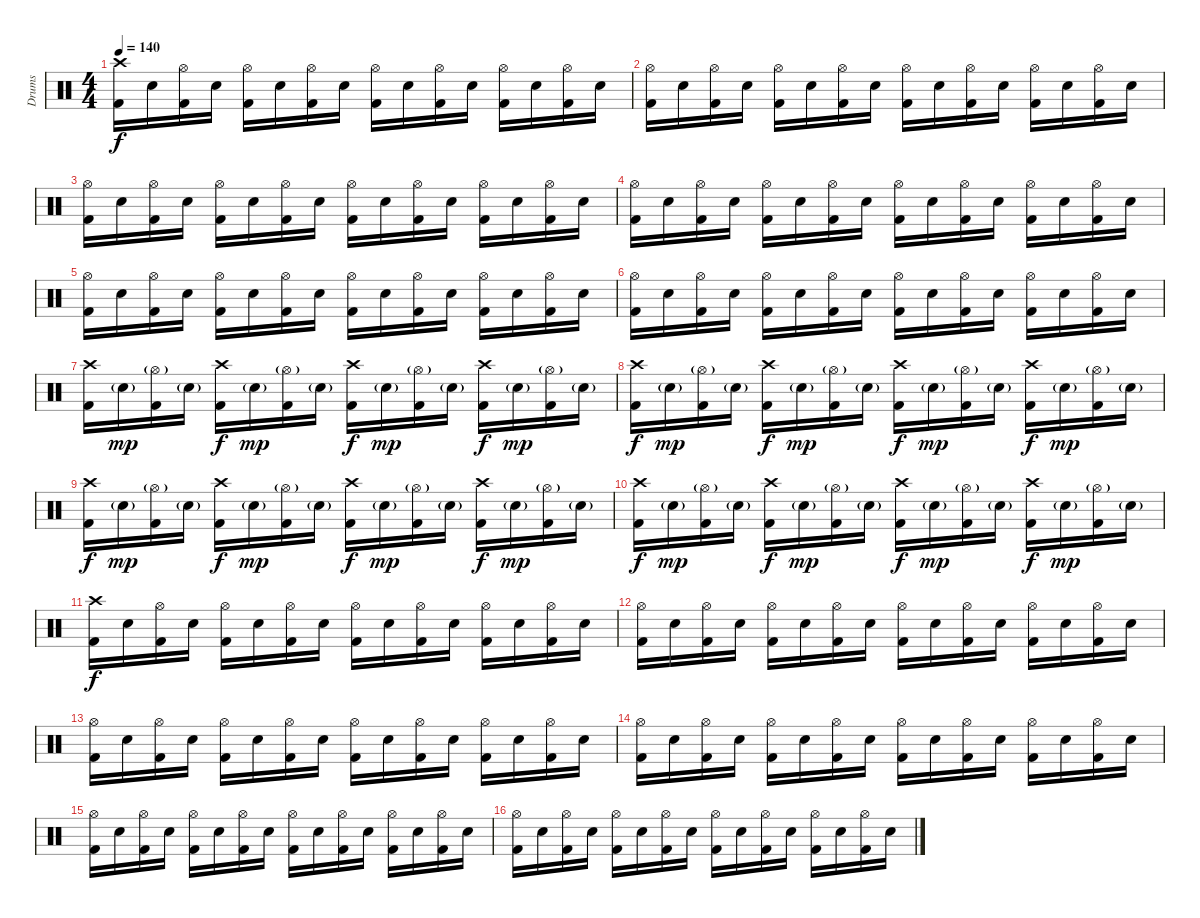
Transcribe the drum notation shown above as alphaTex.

\track ("Drums" "Drums") {instrument percussion}
\staff {score}
\articulation defaults
\ts (4 4)
\tempo 140
\clef neutral
\ks c
("Kick (hit) 2" "Crash high (hit)").16{dy f} "Electric Snare (hit)".16 ("Kick (hit) 2" "Hi-Hat (open)").16 "Electric Snare (hit)".16 ("Kick (hit) 2" "Hi-Hat (open)").16 "Electric Snare (hit)".16 ("Kick (hit) 2" "Hi-Hat (open)").16 "Electric Snare (hit)".16 ("Kick (hit) 2" "Hi-Hat (open)").16 "Electric Snare (hit)".16 ("Kick (hit) 2" "Hi-Hat (open)").16 "Electric Snare (hit)".16 ("Kick (hit) 2" "Hi-Hat (open)").16 "Electric Snare (hit)".16 ("Kick (hit) 2" "Hi-Hat (open)").16 "Electric Snare (hit)".16 |
("Kick (hit) 2" "Hi-Hat (open)").16 "Electric Snare (hit)".16 ("Kick (hit) 2" "Hi-Hat (open)").16 "Electric Snare (hit)".16 ("Kick (hit) 2" "Hi-Hat (open)").16 "Electric Snare (hit)".16 ("Kick (hit) 2" "Hi-Hat (open)").16 "Electric Snare (hit)".16 ("Kick (hit) 2" "Hi-Hat (open)").16 "Electric Snare (hit)".16 ("Kick (hit) 2" "Hi-Hat (open)").16 "Electric Snare (hit)".16 ("Kick (hit) 2" "Hi-Hat (open)").16 "Electric Snare (hit)".16 ("Kick (hit) 2" "Hi-Hat (open)").16 "Electric Snare (hit)".16 |
("Kick (hit) 2" "Hi-Hat (open)").16 "Electric Snare (hit)".16 ("Kick (hit) 2" "Hi-Hat (open)").16 "Electric Snare (hit)".16 ("Kick (hit) 2" "Hi-Hat (open)").16 "Electric Snare (hit)".16 ("Kick (hit) 2" "Hi-Hat (open)").16 "Electric Snare (hit)".16 ("Kick (hit) 2" "Hi-Hat (open)").16 "Electric Snare (hit)".16 ("Kick (hit) 2" "Hi-Hat (open)").16 "Electric Snare (hit)".16 ("Kick (hit) 2" "Hi-Hat (open)").16 "Electric Snare (hit)".16 ("Kick (hit) 2" "Hi-Hat (open)").16 "Electric Snare (hit)".16 |
("Kick (hit) 2" "Hi-Hat (open)").16 "Electric Snare (hit)".16 ("Kick (hit) 2" "Hi-Hat (open)").16 "Electric Snare (hit)".16 ("Kick (hit) 2" "Hi-Hat (open)").16 "Electric Snare (hit)".16 ("Kick (hit) 2" "Hi-Hat (open)").16 "Electric Snare (hit)".16 ("Kick (hit) 2" "Hi-Hat (open)").16 "Electric Snare (hit)".16 ("Kick (hit) 2" "Hi-Hat (open)").16 "Electric Snare (hit)".16 ("Kick (hit) 2" "Hi-Hat (open)").16 "Electric Snare (hit)".16 ("Kick (hit) 2" "Hi-Hat (open)").16 "Electric Snare (hit)".16 |
("Kick (hit) 2" "Hi-Hat (open)").16 "Electric Snare (hit)".16 ("Kick (hit) 2" "Hi-Hat (open)").16 "Electric Snare (hit)".16 ("Kick (hit) 2" "Hi-Hat (open)").16 "Electric Snare (hit)".16 ("Kick (hit) 2" "Hi-Hat (open)").16 "Electric Snare (hit)".16 ("Kick (hit) 2" "Hi-Hat (open)").16 "Electric Snare (hit)".16 ("Kick (hit) 2" "Hi-Hat (open)").16 "Electric Snare (hit)".16 ("Kick (hit) 2" "Hi-Hat (open)").16 "Electric Snare (hit)".16 ("Kick (hit) 2" "Hi-Hat (open)").16 "Electric Snare (hit)".16 |
("Kick (hit) 2" "Hi-Hat (open)").16 "Electric Snare (hit)".16 ("Kick (hit) 2" "Hi-Hat (open)").16 "Electric Snare (hit)".16 ("Kick (hit) 2" "Hi-Hat (open)").16 "Electric Snare (hit)".16 ("Kick (hit) 2" "Hi-Hat (open)").16 "Electric Snare (hit)".16 ("Kick (hit) 2" "Hi-Hat (open)").16 "Electric Snare (hit)".16 ("Kick (hit) 2" "Hi-Hat (open)").16 "Electric Snare (hit)".16 ("Kick (hit) 2" "Hi-Hat (open)").16 "Electric Snare (hit)".16 ("Kick (hit) 2" "Hi-Hat (open)").16 "Electric Snare (hit)".16 |
("Kick (hit) 2" "Crash high (hit)").16 "Electric Snare (hit)"{g}.16{dy mp} ("Kick (hit) 2" "Hi-Hat (open)"{g}).16 "Electric Snare (hit)"{g}.16 ("Kick (hit) 2" "Crash high (hit)").16{dy f} "Electric Snare (hit)"{g}.16{dy mp} ("Kick (hit) 2" "Hi-Hat (open)"{g}).16 "Electric Snare (hit)"{g}.16 ("Kick (hit) 2" "Crash high (hit)").16{dy f} "Electric Snare (hit)"{g}.16{dy mp} ("Kick (hit) 2" "Hi-Hat (open)"{g}).16 "Electric Snare (hit)"{g}.16 ("Kick (hit) 2" "Crash high (hit)").16{dy f} "Electric Snare (hit)"{g}.16{dy mp} ("Kick (hit) 2" "Hi-Hat (open)"{g}).16 "Electric Snare (hit)"{g}.16 |
("Kick (hit) 2" "Crash high (hit)").16{dy f} "Electric Snare (hit)"{g}.16{dy mp} ("Kick (hit) 2" "Hi-Hat (open)"{g}).16 "Electric Snare (hit)"{g}.16 ("Kick (hit) 2" "Crash high (hit)").16{dy f} "Electric Snare (hit)"{g}.16{dy mp} ("Kick (hit) 2" "Hi-Hat (open)"{g}).16 "Electric Snare (hit)"{g}.16 ("Kick (hit) 2" "Crash high (hit)").16{dy f} "Electric Snare (hit)"{g}.16{dy mp} ("Kick (hit) 2" "Hi-Hat (open)"{g}).16 "Electric Snare (hit)"{g}.16 ("Kick (hit) 2" "Crash high (hit)").16{dy f} "Electric Snare (hit)"{g}.16{dy mp} ("Kick (hit) 2" "Hi-Hat (open)"{g}).16 "Electric Snare (hit)"{g}.16 |
("Kick (hit) 2" "Crash high (hit)").16{dy f} "Electric Snare (hit)"{g}.16{dy mp} ("Kick (hit) 2" "Hi-Hat (open)"{g}).16 "Electric Snare (hit)"{g}.16 ("Kick (hit) 2" "Crash high (hit)").16{dy f} "Electric Snare (hit)"{g}.16{dy mp} ("Kick (hit) 2" "Hi-Hat (open)"{g}).16 "Electric Snare (hit)"{g}.16 ("Kick (hit) 2" "Crash high (hit)").16{dy f} "Electric Snare (hit)"{g}.16{dy mp} ("Kick (hit) 2" "Hi-Hat (open)"{g}).16 "Electric Snare (hit)"{g}.16 ("Kick (hit) 2" "Crash high (hit)").16{dy f} "Electric Snare (hit)"{g}.16{dy mp} ("Kick (hit) 2" "Hi-Hat (open)"{g}).16 "Electric Snare (hit)"{g}.16 |
("Kick (hit) 2" "Crash high (hit)").16{dy f} "Electric Snare (hit)"{g}.16{dy mp} ("Kick (hit) 2" "Hi-Hat (open)"{g}).16 "Electric Snare (hit)"{g}.16 ("Kick (hit) 2" "Crash high (hit)").16{dy f} "Electric Snare (hit)"{g}.16{dy mp} ("Kick (hit) 2" "Hi-Hat (open)"{g}).16 "Electric Snare (hit)"{g}.16 ("Kick (hit) 2" "Crash high (hit)").16{dy f} "Electric Snare (hit)"{g}.16{dy mp} ("Kick (hit) 2" "Hi-Hat (open)"{g}).16 "Electric Snare (hit)"{g}.16 ("Kick (hit) 2" "Crash high (hit)").16{dy f} "Electric Snare (hit)"{g}.16{dy mp} ("Kick (hit) 2" "Hi-Hat (open)"{g}).16 "Electric Snare (hit)"{g}.16 |
("Kick (hit) 2" "Crash high (hit)").16{dy f} "Electric Snare (hit)".16 ("Kick (hit) 2" "Hi-Hat (open)").16 "Electric Snare (hit)".16 ("Kick (hit) 2" "Hi-Hat (open)").16 "Electric Snare (hit)".16 ("Kick (hit) 2" "Hi-Hat (open)").16 "Electric Snare (hit)".16 ("Kick (hit) 2" "Hi-Hat (open)").16 "Electric Snare (hit)".16 ("Kick (hit) 2" "Hi-Hat (open)").16 "Electric Snare (hit)".16 ("Kick (hit) 2" "Hi-Hat (open)").16 "Electric Snare (hit)".16 ("Kick (hit) 2" "Hi-Hat (open)").16 "Electric Snare (hit)".16 |
("Kick (hit) 2" "Hi-Hat (open)").16 "Electric Snare (hit)".16 ("Kick (hit) 2" "Hi-Hat (open)").16 "Electric Snare (hit)".16 ("Kick (hit) 2" "Hi-Hat (open)").16 "Electric Snare (hit)".16 ("Kick (hit) 2" "Hi-Hat (open)").16 "Electric Snare (hit)".16 ("Kick (hit) 2" "Hi-Hat (open)").16 "Electric Snare (hit)".16 ("Kick (hit) 2" "Hi-Hat (open)").16 "Electric Snare (hit)".16 ("Kick (hit) 2" "Hi-Hat (open)").16 "Electric Snare (hit)".16 ("Kick (hit) 2" "Hi-Hat (open)").16 "Electric Snare (hit)".16 |
("Kick (hit) 2" "Hi-Hat (open)").16 "Electric Snare (hit)".16 ("Kick (hit) 2" "Hi-Hat (open)").16 "Electric Snare (hit)".16 ("Kick (hit) 2" "Hi-Hat (open)").16 "Electric Snare (hit)".16 ("Kick (hit) 2" "Hi-Hat (open)").16 "Electric Snare (hit)".16 ("Kick (hit) 2" "Hi-Hat (open)").16 "Electric Snare (hit)".16 ("Kick (hit) 2" "Hi-Hat (open)").16 "Electric Snare (hit)".16 ("Kick (hit) 2" "Hi-Hat (open)").16 "Electric Snare (hit)".16 ("Kick (hit) 2" "Hi-Hat (open)").16 "Electric Snare (hit)".16 |
("Kick (hit) 2" "Hi-Hat (open)").16 "Electric Snare (hit)".16 ("Kick (hit) 2" "Hi-Hat (open)").16 "Electric Snare (hit)".16 ("Kick (hit) 2" "Hi-Hat (open)").16 "Electric Snare (hit)".16 ("Kick (hit) 2" "Hi-Hat (open)").16 "Electric Snare (hit)".16 ("Kick (hit) 2" "Hi-Hat (open)").16 "Electric Snare (hit)".16 ("Kick (hit) 2" "Hi-Hat (open)").16 "Electric Snare (hit)".16 ("Kick (hit) 2" "Hi-Hat (open)").16 "Electric Snare (hit)".16 ("Kick (hit) 2" "Hi-Hat (open)").16 "Electric Snare (hit)".16 |
("Kick (hit) 2" "Hi-Hat (open)").16 "Electric Snare (hit)".16 ("Kick (hit) 2" "Hi-Hat (open)").16 "Electric Snare (hit)".16 ("Kick (hit) 2" "Hi-Hat (open)").16 "Electric Snare (hit)".16 ("Kick (hit) 2" "Hi-Hat (open)").16 "Electric Snare (hit)".16 ("Kick (hit) 2" "Hi-Hat (open)").16 "Electric Snare (hit)".16 ("Kick (hit) 2" "Hi-Hat (open)").16 "Electric Snare (hit)".16 ("Kick (hit) 2" "Hi-Hat (open)").16 "Electric Snare (hit)".16 ("Kick (hit) 2" "Hi-Hat (open)").16 "Electric Snare (hit)".16 |
("Kick (hit) 2" "Hi-Hat (open)").16 "Electric Snare (hit)".16 ("Kick (hit) 2" "Hi-Hat (open)").16 "Electric Snare (hit)".16 ("Kick (hit) 2" "Hi-Hat (open)").16 "Electric Snare (hit)".16 ("Kick (hit) 2" "Hi-Hat (open)").16 "Electric Snare (hit)".16 ("Kick (hit) 2" "Hi-Hat (open)").16 "Electric Snare (hit)".16 ("Kick (hit) 2" "Hi-Hat (open)").16 "Electric Snare (hit)".16 ("Kick (hit) 2" "Hi-Hat (open)").16 "Electric Snare (hit)".16 ("Kick (hit) 2" "Hi-Hat (open)").16 "Electric Snare (hit)".16
